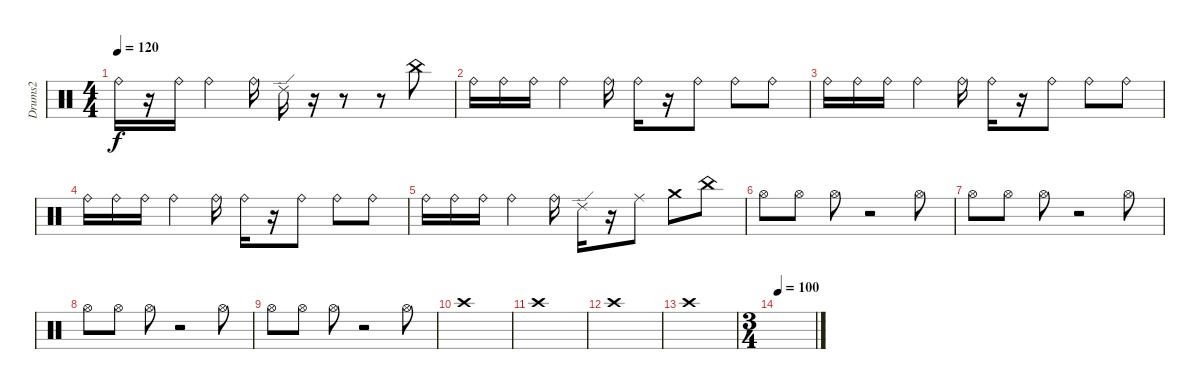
\track ("Drums2" "Drums2") {instrument percussion}
\staff {score}
\articulation defaults
\ts (4 4)
\tempo 120
\clef neutral
\ks c "Ride (bell)".16{dy f}
r.16 "Ride (bell)".16 "Ride (bell)".4 "Ride (bell)".16 "Ride (edge) 2".16 r.16 r.8 r.8 "China (hit)".8 |
"Ride (bell)".16 "Ride (bell)".16 "Ride (bell)".16 "Ride (bell)".4 "Ride (bell)".16 "Ride (bell)".16 r.16 "Ride (bell)".8 "Ride (bell)".8 "Ride (bell)".8 |
"Ride (bell)".16 "Ride (bell)".16 "Ride (bell)".16 "Ride (bell)".4 "Ride (bell)".16 "Ride (bell)".16 r.16 "Ride (bell)".8 "Ride (bell)".8 "Ride (bell)".8 |
"Ride (bell)".16 "Ride (bell)".16 "Ride (bell)".16 "Ride (bell)".4 "Ride (bell)".16 "Ride (bell)".16 r.16 "Ride (bell)".8 "Ride (bell)".8 "Ride (bell)".8 |
"Ride (bell)".16 "Ride (bell)".16 "Ride (bell)".16 "Ride (bell)".4 "Ride (bell)".16 "Ride (edge) 2".16 r.16 "Ride (middle)".8 "Crash medium (hit)".8 "China (hit)".8 |
"Hi-Hat (open)".8 "Hi-Hat (open)".8 "Hi-Hat (open)".8 r.2 "Hi-Hat (open)".8 |
"Hi-Hat (open)".8 "Hi-Hat (open)".8 "Hi-Hat (open)".8 r.2 "Hi-Hat (open)".8 |
"Hi-Hat (open)".8 "Hi-Hat (open)".8 "Hi-Hat (open)".8 r.2 "Hi-Hat (open)".8 |
"Hi-Hat (open)".8 "Hi-Hat (open)".8 "Hi-Hat (open)".8 r.2 "Hi-Hat (open)".8 |
"Crash high (hit)".1 |
"Crash high (hit)".1 |
"Crash high (hit)".1 |
"Crash high (hit)".1 |
\ts (3 4)
\tempo 100
